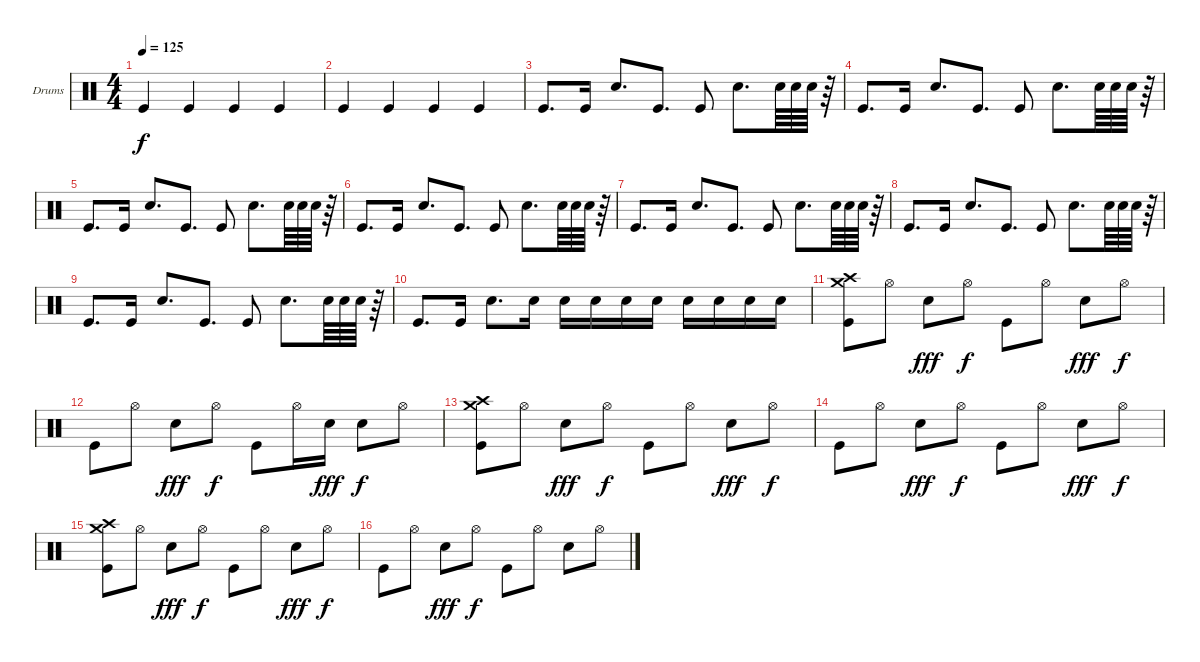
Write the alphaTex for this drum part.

\bracketExtendMode groupsimilarinstruments
\firstSystemTrackNameOrientation horizontal
\otherSystemsTrackNameOrientation horizontal
\track ("Drumkit" "Drums") {instrument percussion}
\staff {score}
\articulation defaults
\ts (4 4)
\tempo 125
\clef neutral
\ks c "Kick (hit)".4{dy f} "Kick (hit)".4 "Kick (hit)".4 "Kick (hit)".4
|
"Kick (hit)".4 "Kick (hit)".4 "Kick (hit)".4 "Kick (hit)".4 |
"Kick (hit)".8{d} "Kick (hit)".16 "Snare (hit) 2".8{d} "Kick (hit)".8{d} "Kick (hit)".8 "Snare (hit) 2".8{d} "Snare (hit) 2".64 "Snare (hit) 2".64 "Snare (hit) 2".64 r.64 |
"Kick (hit)".8{d} "Kick (hit)".16 "Snare (hit) 2".8{d} "Kick (hit)".8{d} "Kick (hit)".8 "Snare (hit) 2".8{d} "Snare (hit) 2".64 "Snare (hit) 2".64 "Snare (hit) 2".64 r.64 |
"Kick (hit)".8{d} "Kick (hit)".16 "Snare (hit) 2".8{d} "Kick (hit)".8{d} "Kick (hit)".8 "Snare (hit) 2".8{d} "Snare (hit) 2".64 "Snare (hit) 2".64 "Snare (hit) 2".64 r.64 |
"Kick (hit)".8{d} "Kick (hit)".16 "Snare (hit) 2".8{d} "Kick (hit)".8{d} "Kick (hit)".8 "Snare (hit) 2".8{d} "Snare (hit) 2".64 "Snare (hit) 2".64 "Snare (hit) 2".64 r.64 |
"Kick (hit)".8{d} "Kick (hit)".16 "Snare (hit) 2".8{d} "Kick (hit)".8{d} "Kick (hit)".8 "Snare (hit) 2".8{d} "Snare (hit) 2".64 "Snare (hit) 2".64 "Snare (hit) 2".64 r.64 |
"Kick (hit)".8{d} "Kick (hit)".16 "Snare (hit) 2".8{d} "Kick (hit)".8{d} "Kick (hit)".8 "Snare (hit) 2".8{d} "Snare (hit) 2".64 "Snare (hit) 2".64 "Snare (hit) 2".64 r.64 |
"Kick (hit)".8{d} "Kick (hit)".16 "Snare (hit) 2".8{d} "Kick (hit)".8{d} "Kick (hit)".8 "Snare (hit) 2".8{d} "Snare (hit) 2".64 "Snare (hit) 2".64 "Snare (hit) 2".64 r.64 |
"Kick (hit)".8{d} "Kick (hit)".16 "Snare (hit) 2".8{d} "Snare (hit) 2".16 "Snare (hit) 2".16 "Snare (hit) 2".16 "Snare (hit) 2".16 "Snare (hit) 2".16 "Snare (hit) 2".16 "Snare (hit) 2".16 "Snare (hit) 2".16 "Snare (hit) 2".16 |
("Crash high (hit)" "Crash medium (hit)" "Kick (hit)").8 "Hi-Hat (open)".8 "Snare (hit) 2".8{dy fff} "Hi-Hat (open)".8{dy f} "Kick (hit)".8 "Hi-Hat (open)".8 "Snare (hit) 2".8{dy fff} "Hi-Hat (open)".8{dy f} |
"Kick (hit)".8 "Hi-Hat (open)".8 "Snare (hit) 2".8{dy fff} "Hi-Hat (open)".8{dy f} "Kick (hit)".8 "Hi-Hat (open)".16 "Snare (hit) 2".16{dy fff} "Snare (hit) 2".8{dy f} "Hi-Hat (open)".8 |
("Crash high (hit)" "Crash medium (hit)" "Kick (hit)").8 "Hi-Hat (open)".8 "Snare (hit) 2".8{dy fff} "Hi-Hat (open)".8{dy f} "Kick (hit)".8 "Hi-Hat (open)".8 "Snare (hit) 2".8{dy fff} "Hi-Hat (open)".8{dy f} |
"Kick (hit)".8 "Hi-Hat (open)".8 "Snare (hit) 2".8{dy fff} "Hi-Hat (open)".8{dy f} "Kick (hit)".8 "Hi-Hat (open)".8 "Snare (hit) 2".8{dy fff} "Hi-Hat (open)".8{dy f} |
("Crash high (hit)" "Crash medium (hit)" "Kick (hit)").8 "Hi-Hat (open)".8 "Snare (hit) 2".8{dy fff} "Hi-Hat (open)".8{dy f} "Kick (hit)".8 "Hi-Hat (open)".8 "Snare (hit) 2".8{dy fff} "Hi-Hat (open)".8{dy f} |
"Kick (hit)".8 "Hi-Hat (open)".8 "Snare (hit) 2".8{dy fff} "Hi-Hat (open)".8{dy f} "Kick (hit)".8 "Hi-Hat (open)".8 "Snare (hit) 2".8 "Hi-Hat (open)".8
